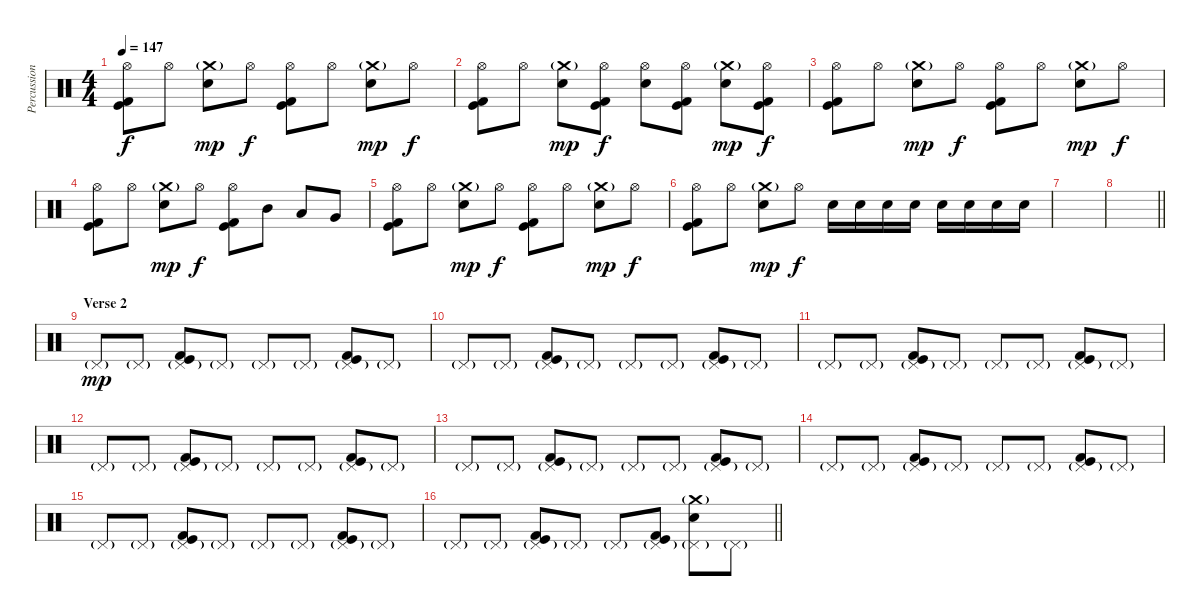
\track ("Percussion" "Percussion") {instrument percussion}
\staff {score}
\articulation defaults
\ts (4 4)
\tempo 147
\clef neutral
\ks c
("Hi-Hat (open)" "Kick (hit)" "Kick (hit) 2").8{dy f} "Hi-Hat (open)".8 ("Crash medium (hit)"{g} "Electric Snare (hit)").8{dy mp} "Hi-Hat (open)".8{dy f} ("Hi-Hat (open)" "Kick (hit)" "Kick (hit) 2").8 "Hi-Hat (open)".8 ("Crash medium (hit)"{g} "Electric Snare (hit)").8{dy mp} "Hi-Hat (open)".8{dy f} |
("Hi-Hat (open)" "Kick (hit)" "Kick (hit) 2").8 "Hi-Hat (open)".8 ("Crash medium (hit)"{g} "Electric Snare (hit)").8{dy mp} ("Hi-Hat (open)" "Kick (hit)" "Kick (hit) 2").8{dy f} ("Hi-Hat (open)" "Electric Snare (hit)").8 ("Hi-Hat (open)" "Kick (hit)" "Kick (hit) 2").8 ("Crash medium (hit)"{g} "Electric Snare (hit)").8{dy mp} ("Hi-Hat (open)" "Kick (hit)" "Kick (hit) 2").8{dy f} |
("Hi-Hat (open)" "Kick (hit)" "Kick (hit) 2").8 "Hi-Hat (open)".8 ("Crash medium (hit)"{g} "Electric Snare (hit)").8{dy mp} "Hi-Hat (open)".8{dy f} ("Hi-Hat (open)" "Kick (hit)" "Kick (hit) 2").8 "Hi-Hat (open)".8 ("Crash medium (hit)"{g} "Electric Snare (hit)").8{dy mp} "Hi-Hat (open)".8{dy f} |
("Hi-Hat (open)" "Kick (hit)" "Kick (hit) 2").8 "Hi-Hat (open)".8 ("Crash medium (hit)"{g} "Electric Snare (hit)").8{dy mp} "Hi-Hat (open)".8{dy f} ("Hi-Hat (open)" "Kick (hit)" "Kick (hit) 2").8 "Mid Tom (hit)".8 "Low Tom (hit)".8 "Very Low Tom (hit)".8 |
("Hi-Hat (open)" "Kick (hit)" "Kick (hit) 2").8 "Hi-Hat (open)".8 ("Crash medium (hit)"{g} "Electric Snare (hit)").8{dy mp} "Hi-Hat (open)".8{dy f} ("Hi-Hat (open)" "Kick (hit)" "Kick (hit) 2").8 "Hi-Hat (open)".8 ("Crash medium (hit)"{g} "Electric Snare (hit)").8{dy mp} "Hi-Hat (open)".8{dy f} |
("Hi-Hat (open)" "Kick (hit)" "Kick (hit) 2").8 "Hi-Hat (open)".8 ("Crash medium (hit)"{g} "Electric Snare (hit)").8{dy mp} "Hi-Hat (open)".8{dy f} "Electric Snare (hit)".16 "Electric Snare (hit)".16 "Electric Snare (hit)".16 "Electric Snare (hit)".16 "Electric Snare (hit)".16 "Electric Snare (hit)".16 "Electric Snare (hit)".16 "Electric Snare (hit)".16 |
|
\barLineRight lightlight
|
\section ("" "Verse 2")
"Pedal Hi-Hat (hit)"{g}.8{dy mp} "Pedal Hi-Hat (hit)"{g}.8 ("Pedal Hi-Hat (hit)"{g} "Kick (hit)" "Kick (hit) 2").8 "Pedal Hi-Hat (hit)"{g}.8 "Pedal Hi-Hat (hit)"{g}.8 "Pedal Hi-Hat (hit)"{g}.8 ("Pedal Hi-Hat (hit)"{g} "Kick (hit)" "Kick (hit) 2").8 "Pedal Hi-Hat (hit)"{g}.8 |
"Pedal Hi-Hat (hit)"{g}.8 "Pedal Hi-Hat (hit)"{g}.8 ("Pedal Hi-Hat (hit)"{g} "Kick (hit)" "Kick (hit) 2").8 "Pedal Hi-Hat (hit)"{g}.8 "Pedal Hi-Hat (hit)"{g}.8 "Pedal Hi-Hat (hit)"{g}.8 ("Pedal Hi-Hat (hit)"{g} "Kick (hit)" "Kick (hit) 2").8 "Pedal Hi-Hat (hit)"{g}.8 |
"Pedal Hi-Hat (hit)"{g}.8 "Pedal Hi-Hat (hit)"{g}.8 ("Pedal Hi-Hat (hit)"{g} "Kick (hit)" "Kick (hit) 2").8 "Pedal Hi-Hat (hit)"{g}.8 "Pedal Hi-Hat (hit)"{g}.8 "Pedal Hi-Hat (hit)"{g}.8 ("Pedal Hi-Hat (hit)"{g} "Kick (hit)" "Kick (hit) 2").8 "Pedal Hi-Hat (hit)"{g}.8 |
"Pedal Hi-Hat (hit)"{g}.8 "Pedal Hi-Hat (hit)"{g}.8 ("Pedal Hi-Hat (hit)"{g} "Kick (hit)" "Kick (hit) 2").8 "Pedal Hi-Hat (hit)"{g}.8 "Pedal Hi-Hat (hit)"{g}.8 "Pedal Hi-Hat (hit)"{g}.8 ("Pedal Hi-Hat (hit)"{g} "Kick (hit)" "Kick (hit) 2").8 "Pedal Hi-Hat (hit)"{g}.8 |
"Pedal Hi-Hat (hit)"{g}.8 "Pedal Hi-Hat (hit)"{g}.8 ("Pedal Hi-Hat (hit)"{g} "Kick (hit)" "Kick (hit) 2").8 "Pedal Hi-Hat (hit)"{g}.8 "Pedal Hi-Hat (hit)"{g}.8 "Pedal Hi-Hat (hit)"{g}.8 ("Pedal Hi-Hat (hit)"{g} "Kick (hit)" "Kick (hit) 2").8 "Pedal Hi-Hat (hit)"{g}.8 |
"Pedal Hi-Hat (hit)"{g}.8 "Pedal Hi-Hat (hit)"{g}.8 ("Pedal Hi-Hat (hit)"{g} "Kick (hit)" "Kick (hit) 2").8 "Pedal Hi-Hat (hit)"{g}.8 "Pedal Hi-Hat (hit)"{g}.8 "Pedal Hi-Hat (hit)"{g}.8 ("Pedal Hi-Hat (hit)"{g} "Kick (hit)" "Kick (hit) 2").8 "Pedal Hi-Hat (hit)"{g}.8 |
"Pedal Hi-Hat (hit)"{g}.8 "Pedal Hi-Hat (hit)"{g}.8 ("Pedal Hi-Hat (hit)"{g} "Kick (hit)" "Kick (hit) 2").8 "Pedal Hi-Hat (hit)"{g}.8 "Pedal Hi-Hat (hit)"{g}.8 "Pedal Hi-Hat (hit)"{g}.8 ("Pedal Hi-Hat (hit)"{g} "Kick (hit)" "Kick (hit) 2").8 "Pedal Hi-Hat (hit)"{g}.8 |
\barLineRight lightlight "Pedal Hi-Hat (hit)"{g}.8 "Pedal Hi-Hat (hit)"{g}.8
("Pedal Hi-Hat (hit)"{g} "Kick (hit)" "Kick (hit) 2").8 "Pedal Hi-Hat (hit)"{g}.8 "Pedal Hi-Hat (hit)"{g}.8 ("Pedal Hi-Hat (hit)"{g} "Kick (hit)" "Kick (hit) 2").8 ("Pedal Hi-Hat (hit)"{g} "Crash medium (hit)"{g} "Electric Snare (hit)").8 "Pedal Hi-Hat (hit)"{g}.8
